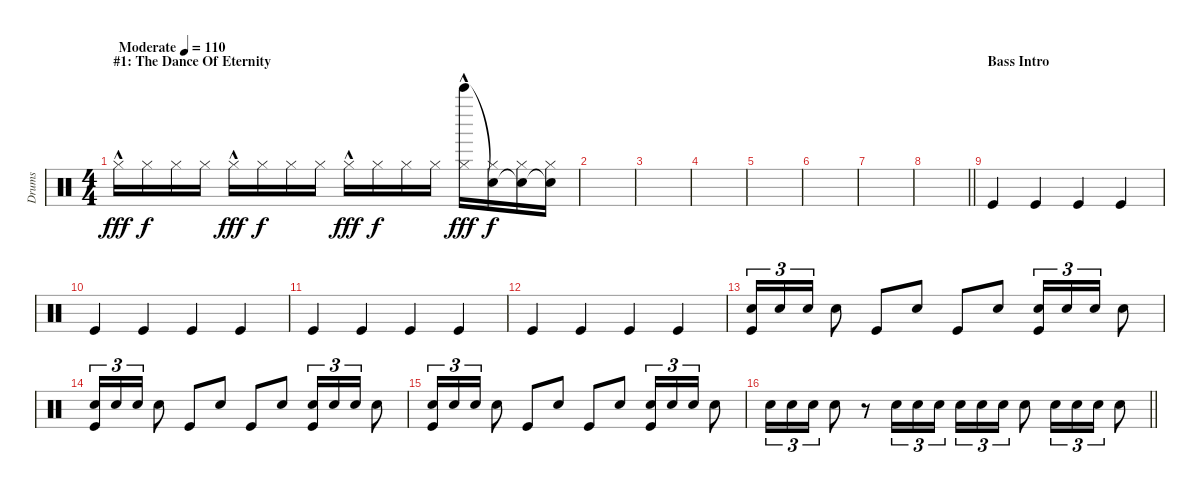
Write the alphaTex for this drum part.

\track ("Drums" "Drums") {instrument percussion}
\staff {score}
\articulation defaults
\ts (4 4)
\section ("" "#1: The Dance Of Eternity")
\tempo (110 "Moderate")
\clef neutral
\ks c "Hi-Hat (closed)"{hac}.16{dy fff} "Hi-Hat (closed)".16{dy f} "Hi-Hat (closed)".16 "Hi-Hat (closed)".16 "Hi-Hat (closed)"{hac}.16{dy fff} "Hi-Hat (closed)".16{dy f} "Hi-Hat (closed)".16 "Hi-Hat (closed)".16 "Hi-Hat (closed)"{hac}.16{dy fff} "Hi-Hat (closed)".16{dy f} "Hi-Hat (closed)".16 "Hi-Hat (closed)".16
("Bell Tree (hit)" "Hi-Hat (closed)"{hac}).16{dy fff} ("Snare (hit)"{t} "Hi-Hat (closed)").16{dy f} ("Snare (hit)"{t} "Hi-Hat (closed)").16 ("Snare (hit)"{t} "Hi-Hat (closed)").16 |
|
|
|
|
|
|
\barLineRight lightlight
|
\section ("" "Bass Intro")
"Kick (hit)".4 "Kick (hit)".4 "Kick (hit)".4 "Kick (hit)".4 |
"Kick (hit)".4 "Kick (hit)".4 "Kick (hit)".4 "Kick (hit)".4 |
"Kick (hit)".4 "Kick (hit)".4 "Kick (hit)".4 "Kick (hit)".4 |
"Kick (hit)".4 "Kick (hit)".4 "Kick (hit)".4 "Kick (hit)".4 |
("Snare (hit) 2" "Kick (hit)").16{tu (3 2) balance 5} "Snare (hit) 2".16{tu (3 2)} "Snare (hit) 2".16{tu (3 2)} "Snare (hit) 2".8 "Kick (hit)".8 "Snare (hit) 2".8 "Kick (hit)".8 "Snare (hit) 2".8 ("Snare (hit) 2" "Kick (hit)").16{tu (3 2)} "Snare (hit) 2".16{tu (3 2)} "Snare (hit) 2".16{tu (3 2)} "Snare (hit) 2".8 |
("Snare (hit) 2" "Kick (hit)").16{tu (3 2)} "Snare (hit) 2".16{tu (3 2)} "Snare (hit) 2".16{tu (3 2)} "Snare (hit) 2".8 "Kick (hit)".8 "Snare (hit) 2".8 "Kick (hit)".8 "Snare (hit) 2".8 ("Snare (hit) 2" "Kick (hit)").16{tu (3 2)} "Snare (hit) 2".16{tu (3 2)} "Snare (hit) 2".16{tu (3 2)} "Snare (hit) 2".8 |
("Snare (hit) 2" "Kick (hit)").16{tu (3 2)} "Snare (hit) 2".16{tu (3 2)} "Snare (hit) 2".16{tu (3 2)} "Snare (hit) 2".8 "Kick (hit)".8 "Snare (hit) 2".8 "Kick (hit)".8 "Snare (hit) 2".8 ("Snare (hit) 2" "Kick (hit)").16{tu (3 2)} "Snare (hit) 2".16{tu (3 2)} "Snare (hit) 2".16{tu (3 2)} "Snare (hit) 2".8 |
\barLineRight lightlight "Snare (hit) 2".16{tu (3 2) balance 8} "Snare (hit) 2".16{tu (3 2)} "Snare (hit) 2".16{tu (3 2)} "Snare (hit) 2".8
r.8 "Snare (hit) 2".16{tu (3 2)} "Snare (hit) 2".16{tu (3 2)} "Snare (hit) 2".16{tu (3 2)} "Snare (hit) 2".16{tu (3 2)} "Snare (hit) 2".16{tu (3 2)} "Snare (hit) 2".16{tu (3 2)} "Snare (hit) 2".8 "Snare (hit) 2".16{tu (3 2)} "Snare (hit) 2".16{tu (3 2)} "Snare (hit) 2".16{tu (3 2)} "Snare (hit) 2".8
